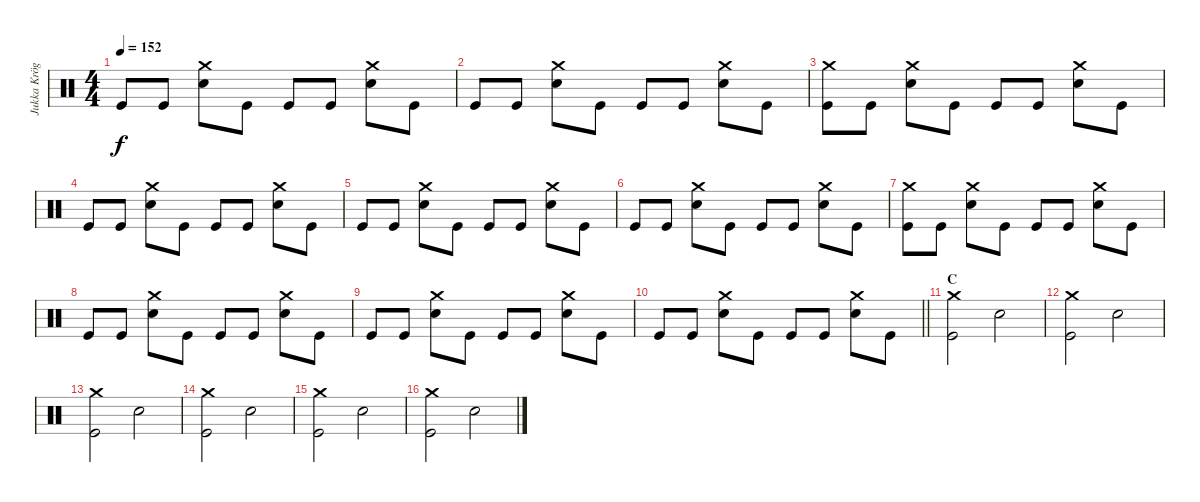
\track ("Jukka Kröger" "Jukka Krög") {instrument percussion}
\staff {score}
\articulation defaults
\ts (4 4)
\tempo 152
\clef neutral
\ks aminor "Kick (hit)".8{dy f} "Kick (hit)".8
("Crash medium (hit)" "Snare (hit) 2").8 "Kick (hit)".8 "Kick (hit)".8 "Kick (hit)".8 ("Crash medium (hit)" "Snare (hit) 2").8 "Kick (hit)".8 |
"Kick (hit)".8 "Kick (hit)".8 ("Crash medium (hit)" "Snare (hit) 2").8 "Kick (hit)".8 "Kick (hit)".8 "Kick (hit)".8 ("Crash medium (hit)" "Snare (hit) 2").8 "Kick (hit)".8 |
("Crash medium (hit)" "Kick (hit)").8 "Kick (hit)".8 ("Crash medium (hit)" "Snare (hit) 2").8 "Kick (hit)".8 "Kick (hit)".8 "Kick (hit)".8 ("Crash medium (hit)" "Snare (hit) 2").8 "Kick (hit)".8 |
"Kick (hit)".8 "Kick (hit)".8 ("Crash medium (hit)" "Snare (hit) 2").8 "Kick (hit)".8 "Kick (hit)".8 "Kick (hit)".8 ("Crash medium (hit)" "Snare (hit) 2").8 "Kick (hit)".8 |
"Kick (hit)".8 "Kick (hit)".8 ("Crash medium (hit)" "Snare (hit) 2").8 "Kick (hit)".8 "Kick (hit)".8 "Kick (hit)".8 ("Crash medium (hit)" "Snare (hit) 2").8 "Kick (hit)".8 |
"Kick (hit)".8 "Kick (hit)".8 ("Crash medium (hit)" "Snare (hit) 2").8 "Kick (hit)".8 "Kick (hit)".8 "Kick (hit)".8 ("Crash medium (hit)" "Snare (hit) 2").8 "Kick (hit)".8 |
("Crash medium (hit)" "Kick (hit)").8 "Kick (hit)".8 ("Crash medium (hit)" "Snare (hit) 2").8 "Kick (hit)".8 "Kick (hit)".8 "Kick (hit)".8 ("Crash medium (hit)" "Snare (hit) 2").8 "Kick (hit)".8 |
"Kick (hit)".8 "Kick (hit)".8 ("Crash medium (hit)" "Snare (hit) 2").8 "Kick (hit)".8 "Kick (hit)".8 "Kick (hit)".8 ("Crash medium (hit)" "Snare (hit) 2").8 "Kick (hit)".8 |
"Kick (hit)".8 "Kick (hit)".8 ("Crash medium (hit)" "Snare (hit) 2").8 "Kick (hit)".8 "Kick (hit)".8 "Kick (hit)".8 ("Crash medium (hit)" "Snare (hit) 2").8 "Kick (hit)".8 |
\barLineRight lightlight "Kick (hit)".8 "Kick (hit)".8
("Crash medium (hit)" "Snare (hit) 2").8 "Kick (hit)".8 "Kick (hit)".8 "Kick (hit)".8 ("Crash medium (hit)" "Snare (hit) 2").8 "Kick (hit)".8 |
\section ("" "C")
("Crash medium (hit)" "Kick (hit)").2 "Snare (hit) 2".2 |
("Crash medium (hit)" "Kick (hit)").2 "Snare (hit) 2".2 |
("Crash medium (hit)" "Kick (hit)").2 "Snare (hit) 2".2 |
("Crash medium (hit)" "Kick (hit)").2 "Snare (hit) 2".2 |
("Crash medium (hit)" "Kick (hit)").2 "Snare (hit) 2".2 |
("Crash medium (hit)" "Kick (hit)").2 "Snare (hit) 2".2
